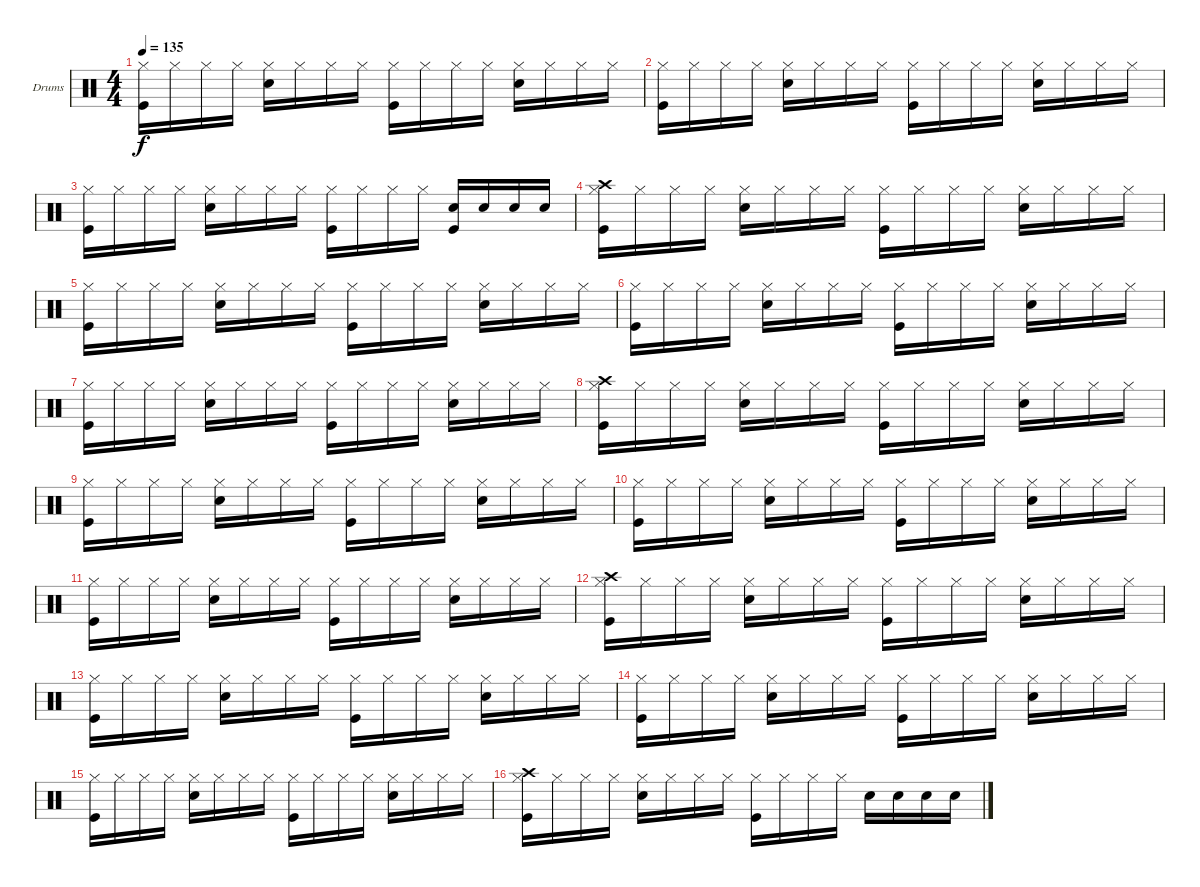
\bracketExtendMode groupsimilarinstruments
\firstSystemTrackNameOrientation horizontal
\otherSystemsTrackNameOrientation horizontal
\track ("Ударные" "Drums") {instrument percussion}
\staff {score}
\articulation defaults
\ts (4 4)
\tempo 135
\clef neutral
\ks c
("Hi-Hat (closed)" "Kick (hit)").16{dy f} "Hi-Hat (closed)".16 "Hi-Hat (closed)".16 "Hi-Hat (closed)".16 ("Hi-Hat (closed)" "Snare (hit) 2").16 "Hi-Hat (closed)".16 "Hi-Hat (closed)".16 "Hi-Hat (closed)".16 ("Hi-Hat (closed)" "Kick (hit)").16 "Hi-Hat (closed)".16 "Hi-Hat (closed)".16 "Hi-Hat (closed)".16 ("Hi-Hat (closed)" "Snare (hit) 2").16 "Hi-Hat (closed)".16 "Hi-Hat (closed)".16 "Hi-Hat (closed)".16 |
("Hi-Hat (closed)" "Kick (hit)").16 "Hi-Hat (closed)".16 "Hi-Hat (closed)".16 "Hi-Hat (closed)".16 ("Hi-Hat (closed)" "Snare (hit) 2").16 "Hi-Hat (closed)".16 "Hi-Hat (closed)".16 "Hi-Hat (closed)".16 ("Hi-Hat (closed)" "Kick (hit)").16 "Hi-Hat (closed)".16 "Hi-Hat (closed)".16 "Hi-Hat (closed)".16 ("Hi-Hat (closed)" "Snare (hit) 2").16 "Hi-Hat (closed)".16 "Hi-Hat (closed)".16 "Hi-Hat (closed)".16 |
("Hi-Hat (closed)" "Kick (hit)").16 "Hi-Hat (closed)".16 "Hi-Hat (closed)".16 "Hi-Hat (closed)".16 ("Hi-Hat (closed)" "Snare (hit) 2").16 "Hi-Hat (closed)".16 "Hi-Hat (closed)".16 "Hi-Hat (closed)".16 ("Hi-Hat (closed)" "Kick (hit)").16 "Hi-Hat (closed)".16 "Hi-Hat (closed)".16 "Hi-Hat (closed)".16 ("Snare (hit) 2" "Kick (hit)").16 "Snare (hit) 2".16 "Snare (hit) 2".16 "Snare (hit) 2".16 |
("Crash high (hit)" "Hi-Hat (closed)" "Kick (hit)").16 "Hi-Hat (closed)".16 "Hi-Hat (closed)".16 "Hi-Hat (closed)".16 ("Hi-Hat (closed)" "Snare (hit) 2").16 "Hi-Hat (closed)".16 "Hi-Hat (closed)".16 "Hi-Hat (closed)".16 ("Hi-Hat (closed)" "Kick (hit)").16 "Hi-Hat (closed)".16 "Hi-Hat (closed)".16 "Hi-Hat (closed)".16 ("Hi-Hat (closed)" "Snare (hit) 2").16 "Hi-Hat (closed)".16 "Hi-Hat (closed)".16 "Hi-Hat (closed)".16 |
("Hi-Hat (closed)" "Kick (hit)").16 "Hi-Hat (closed)".16 "Hi-Hat (closed)".16 "Hi-Hat (closed)".16 ("Hi-Hat (closed)" "Snare (hit) 2").16 "Hi-Hat (closed)".16 "Hi-Hat (closed)".16 "Hi-Hat (closed)".16 ("Hi-Hat (closed)" "Kick (hit)").16 "Hi-Hat (closed)".16 "Hi-Hat (closed)".16 "Hi-Hat (closed)".16 ("Hi-Hat (closed)" "Snare (hit) 2").16 "Hi-Hat (closed)".16 "Hi-Hat (closed)".16 "Hi-Hat (closed)".16 |
("Hi-Hat (closed)" "Kick (hit)").16 "Hi-Hat (closed)".16 "Hi-Hat (closed)".16 "Hi-Hat (closed)".16 ("Hi-Hat (closed)" "Snare (hit) 2").16 "Hi-Hat (closed)".16 "Hi-Hat (closed)".16 "Hi-Hat (closed)".16 ("Hi-Hat (closed)" "Kick (hit)").16 "Hi-Hat (closed)".16 "Hi-Hat (closed)".16 "Hi-Hat (closed)".16 ("Hi-Hat (closed)" "Snare (hit) 2").16 "Hi-Hat (closed)".16 "Hi-Hat (closed)".16 "Hi-Hat (closed)".16 |
("Hi-Hat (closed)" "Kick (hit)").16 "Hi-Hat (closed)".16 "Hi-Hat (closed)".16 "Hi-Hat (closed)".16 ("Hi-Hat (closed)" "Snare (hit) 2").16 "Hi-Hat (closed)".16 "Hi-Hat (closed)".16 "Hi-Hat (closed)".16 ("Hi-Hat (closed)" "Kick (hit)").16 "Hi-Hat (closed)".16 "Hi-Hat (closed)".16 "Hi-Hat (closed)".16 ("Hi-Hat (closed)" "Snare (hit) 2").16 "Hi-Hat (closed)".16 "Hi-Hat (closed)".16 "Hi-Hat (closed)".16 |
("Crash high (hit)" "Hi-Hat (closed)" "Kick (hit)").16 "Hi-Hat (closed)".16 "Hi-Hat (closed)".16 "Hi-Hat (closed)".16 ("Hi-Hat (closed)" "Snare (hit) 2").16 "Hi-Hat (closed)".16 "Hi-Hat (closed)".16 "Hi-Hat (closed)".16 ("Hi-Hat (closed)" "Kick (hit)").16 "Hi-Hat (closed)".16 "Hi-Hat (closed)".16 "Hi-Hat (closed)".16 ("Hi-Hat (closed)" "Snare (hit) 2").16 "Hi-Hat (closed)".16 "Hi-Hat (closed)".16 "Hi-Hat (closed)".16 |
("Hi-Hat (closed)" "Kick (hit)").16 "Hi-Hat (closed)".16 "Hi-Hat (closed)".16 "Hi-Hat (closed)".16 ("Hi-Hat (closed)" "Snare (hit) 2").16 "Hi-Hat (closed)".16 "Hi-Hat (closed)".16 "Hi-Hat (closed)".16 ("Hi-Hat (closed)" "Kick (hit)").16 "Hi-Hat (closed)".16 "Hi-Hat (closed)".16 "Hi-Hat (closed)".16 ("Hi-Hat (closed)" "Snare (hit) 2").16 "Hi-Hat (closed)".16 "Hi-Hat (closed)".16 "Hi-Hat (closed)".16 |
("Hi-Hat (closed)" "Kick (hit)").16 "Hi-Hat (closed)".16 "Hi-Hat (closed)".16 "Hi-Hat (closed)".16 ("Hi-Hat (closed)" "Snare (hit) 2").16 "Hi-Hat (closed)".16 "Hi-Hat (closed)".16 "Hi-Hat (closed)".16 ("Hi-Hat (closed)" "Kick (hit)").16 "Hi-Hat (closed)".16 "Hi-Hat (closed)".16 "Hi-Hat (closed)".16 ("Hi-Hat (closed)" "Snare (hit) 2").16 "Hi-Hat (closed)".16 "Hi-Hat (closed)".16 "Hi-Hat (closed)".16 |
("Hi-Hat (closed)" "Kick (hit)").16 "Hi-Hat (closed)".16 "Hi-Hat (closed)".16 "Hi-Hat (closed)".16 ("Hi-Hat (closed)" "Snare (hit) 2").16 "Hi-Hat (closed)".16 "Hi-Hat (closed)".16 "Hi-Hat (closed)".16 ("Hi-Hat (closed)" "Kick (hit)").16 "Hi-Hat (closed)".16 "Hi-Hat (closed)".16 "Hi-Hat (closed)".16 ("Hi-Hat (closed)" "Snare (hit) 2").16 "Hi-Hat (closed)".16 "Hi-Hat (closed)".16 "Hi-Hat (closed)".16 |
("Crash high (hit)" "Hi-Hat (closed)" "Kick (hit)").16 "Hi-Hat (closed)".16 "Hi-Hat (closed)".16 "Hi-Hat (closed)".16 ("Hi-Hat (closed)" "Snare (hit) 2").16 "Hi-Hat (closed)".16 "Hi-Hat (closed)".16 "Hi-Hat (closed)".16 ("Hi-Hat (closed)" "Kick (hit)").16 "Hi-Hat (closed)".16 "Hi-Hat (closed)".16 "Hi-Hat (closed)".16 ("Hi-Hat (closed)" "Snare (hit) 2").16 "Hi-Hat (closed)".16 "Hi-Hat (closed)".16 "Hi-Hat (closed)".16 |
("Hi-Hat (closed)" "Kick (hit)").16 "Hi-Hat (closed)".16 "Hi-Hat (closed)".16 "Hi-Hat (closed)".16 ("Hi-Hat (closed)" "Snare (hit) 2").16 "Hi-Hat (closed)".16 "Hi-Hat (closed)".16 "Hi-Hat (closed)".16 ("Hi-Hat (closed)" "Kick (hit)").16 "Hi-Hat (closed)".16 "Hi-Hat (closed)".16 "Hi-Hat (closed)".16 ("Hi-Hat (closed)" "Snare (hit) 2").16 "Hi-Hat (closed)".16 "Hi-Hat (closed)".16 "Hi-Hat (closed)".16 |
("Hi-Hat (closed)" "Kick (hit)").16 "Hi-Hat (closed)".16 "Hi-Hat (closed)".16 "Hi-Hat (closed)".16 ("Hi-Hat (closed)" "Snare (hit) 2").16 "Hi-Hat (closed)".16 "Hi-Hat (closed)".16 "Hi-Hat (closed)".16 ("Hi-Hat (closed)" "Kick (hit)").16 "Hi-Hat (closed)".16 "Hi-Hat (closed)".16 "Hi-Hat (closed)".16 ("Hi-Hat (closed)" "Snare (hit) 2").16 "Hi-Hat (closed)".16 "Hi-Hat (closed)".16 "Hi-Hat (closed)".16 |
("Hi-Hat (closed)" "Kick (hit)").16 "Hi-Hat (closed)".16 "Hi-Hat (closed)".16 "Hi-Hat (closed)".16 ("Hi-Hat (closed)" "Snare (hit) 2").16 "Hi-Hat (closed)".16 "Hi-Hat (closed)".16 "Hi-Hat (closed)".16 ("Hi-Hat (closed)" "Kick (hit)").16 "Hi-Hat (closed)".16 "Hi-Hat (closed)".16 "Hi-Hat (closed)".16 ("Hi-Hat (closed)" "Snare (hit) 2").16 "Hi-Hat (closed)".16 "Hi-Hat (closed)".16 "Hi-Hat (closed)".16 |
("Crash high (hit)" "Hi-Hat (closed)" "Kick (hit)").16 "Hi-Hat (closed)".16 "Hi-Hat (closed)".16 "Hi-Hat (closed)".16 ("Hi-Hat (closed)" "Snare (hit) 2").16 "Hi-Hat (closed)".16 "Hi-Hat (closed)".16 "Hi-Hat (closed)".16 ("Hi-Hat (closed)" "Kick (hit)").16 "Hi-Hat (closed)".16 "Hi-Hat (closed)".16 "Hi-Hat (closed)".16 "Snare (hit) 2".16 "Snare (hit) 2".16 "Snare (hit) 2".16 "Snare (hit) 2".16
